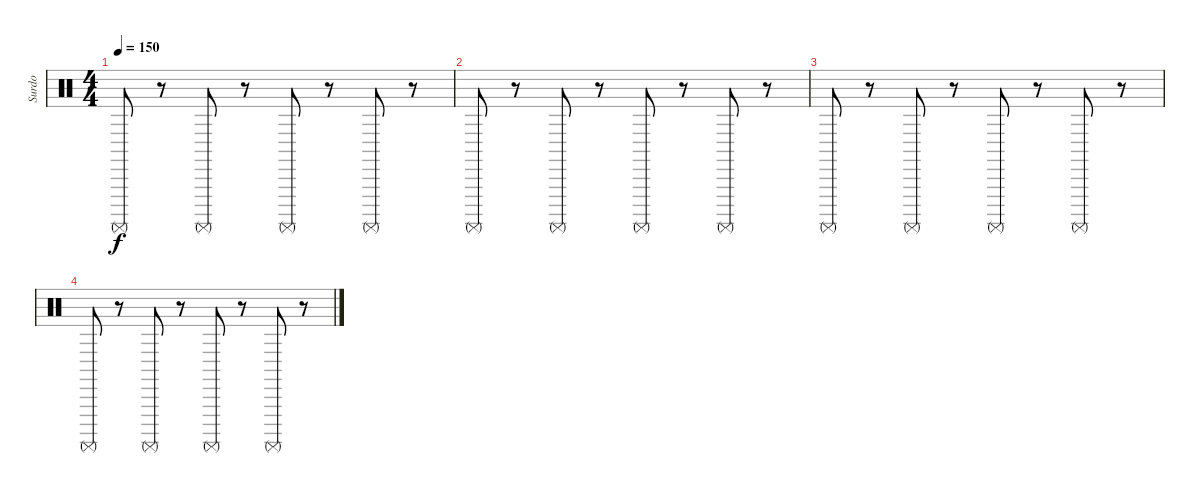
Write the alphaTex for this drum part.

\track ("Surdo" "Surdo") {instrument percussion}
\staff {score}
\articulation defaults
\ts (4 4)
\tempo 150
\clef neutral
\ks c "Surdo (mute)".8{dy f}
r.8 "Surdo (mute)".8 r.8 "Surdo (mute)".8 r.8 "Surdo (mute)".8 r.8 |
"Surdo (mute)".8 r.8 "Surdo (mute)".8 r.8 "Surdo (mute)".8 r.8 "Surdo (mute)".8 r.8 |
"Surdo (mute)".8 r.8 "Surdo (mute)".8 r.8 "Surdo (mute)".8 r.8 "Surdo (mute)".8 r.8 |
"Surdo (mute)".8 r.8 "Surdo (mute)".8 r.8 "Surdo (mute)".8 r.8 "Surdo (mute)".8 r.8
